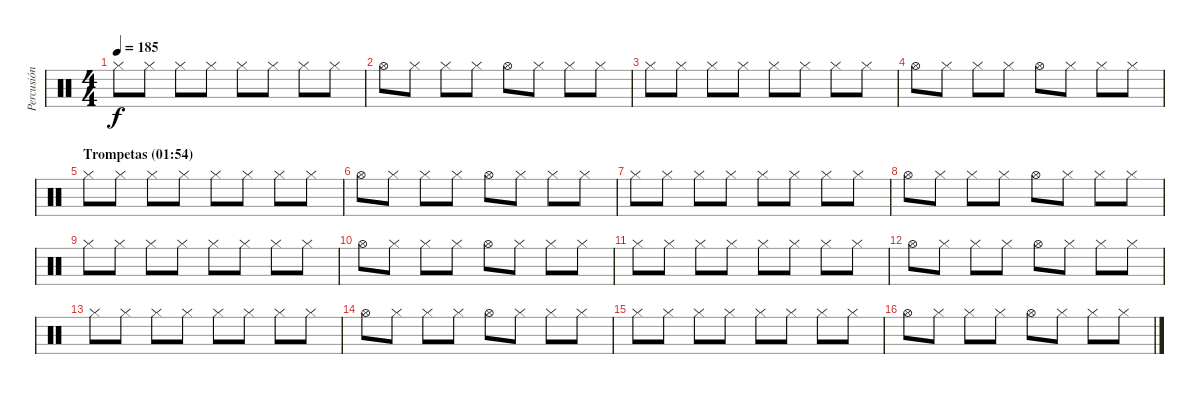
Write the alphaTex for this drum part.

\track ("Percusión" "Percusión") {instrument percussion}
\staff {score}
\articulation defaults
\ts (4 4)
\tempo 185
\clef neutral
\ks c "Hi-Hat (closed)".8{dy f} "Hi-Hat (closed)".8 "Hi-Hat (closed)".8 "Hi-Hat (closed)".8 "Hi-Hat (closed)".8 "Hi-Hat (closed)".8 "Hi-Hat (closed)".8 "Hi-Hat (closed)".8
|
"Hi-Hat (open)".8 "Hi-Hat (closed)".8 "Hi-Hat (closed)".8 "Hi-Hat (closed)".8 "Hi-Hat (open)".8 "Hi-Hat (closed)".8 "Hi-Hat (closed)".8 "Hi-Hat (closed)".8 |
"Hi-Hat (closed)".8 "Hi-Hat (closed)".8 "Hi-Hat (closed)".8 "Hi-Hat (closed)".8 "Hi-Hat (closed)".8 "Hi-Hat (closed)".8 "Hi-Hat (closed)".8 "Hi-Hat (closed)".8 |
"Hi-Hat (open)".8 "Hi-Hat (closed)".8 "Hi-Hat (closed)".8 "Hi-Hat (closed)".8 "Hi-Hat (open)".8 "Hi-Hat (closed)".8 "Hi-Hat (closed)".8 "Hi-Hat (closed)".8 |
\section ("" "Trompetas (01:54)")
"Hi-Hat (closed)".8 "Hi-Hat (closed)".8 "Hi-Hat (closed)".8 "Hi-Hat (closed)".8 "Hi-Hat (closed)".8 "Hi-Hat (closed)".8 "Hi-Hat (closed)".8 "Hi-Hat (closed)".8 |
"Hi-Hat (open)".8 "Hi-Hat (closed)".8 "Hi-Hat (closed)".8 "Hi-Hat (closed)".8 "Hi-Hat (open)".8 "Hi-Hat (closed)".8 "Hi-Hat (closed)".8 "Hi-Hat (closed)".8 |
"Hi-Hat (closed)".8 "Hi-Hat (closed)".8 "Hi-Hat (closed)".8 "Hi-Hat (closed)".8 "Hi-Hat (closed)".8 "Hi-Hat (closed)".8 "Hi-Hat (closed)".8 "Hi-Hat (closed)".8 |
"Hi-Hat (open)".8 "Hi-Hat (closed)".8 "Hi-Hat (closed)".8 "Hi-Hat (closed)".8 "Hi-Hat (open)".8 "Hi-Hat (closed)".8 "Hi-Hat (closed)".8 "Hi-Hat (closed)".8 |
"Hi-Hat (closed)".8 "Hi-Hat (closed)".8 "Hi-Hat (closed)".8 "Hi-Hat (closed)".8 "Hi-Hat (closed)".8 "Hi-Hat (closed)".8 "Hi-Hat (closed)".8 "Hi-Hat (closed)".8 |
"Hi-Hat (open)".8 "Hi-Hat (closed)".8 "Hi-Hat (closed)".8 "Hi-Hat (closed)".8 "Hi-Hat (open)".8 "Hi-Hat (closed)".8 "Hi-Hat (closed)".8 "Hi-Hat (closed)".8 |
"Hi-Hat (closed)".8 "Hi-Hat (closed)".8 "Hi-Hat (closed)".8 "Hi-Hat (closed)".8 "Hi-Hat (closed)".8 "Hi-Hat (closed)".8 "Hi-Hat (closed)".8 "Hi-Hat (closed)".8 |
"Hi-Hat (open)".8 "Hi-Hat (closed)".8 "Hi-Hat (closed)".8 "Hi-Hat (closed)".8 "Hi-Hat (open)".8 "Hi-Hat (closed)".8 "Hi-Hat (closed)".8 "Hi-Hat (closed)".8 |
"Hi-Hat (closed)".8 "Hi-Hat (closed)".8 "Hi-Hat (closed)".8 "Hi-Hat (closed)".8 "Hi-Hat (closed)".8 "Hi-Hat (closed)".8 "Hi-Hat (closed)".8 "Hi-Hat (closed)".8 |
"Hi-Hat (open)".8 "Hi-Hat (closed)".8 "Hi-Hat (closed)".8 "Hi-Hat (closed)".8 "Hi-Hat (open)".8 "Hi-Hat (closed)".8 "Hi-Hat (closed)".8 "Hi-Hat (closed)".8 |
"Hi-Hat (closed)".8 "Hi-Hat (closed)".8 "Hi-Hat (closed)".8 "Hi-Hat (closed)".8 "Hi-Hat (closed)".8 "Hi-Hat (closed)".8 "Hi-Hat (closed)".8 "Hi-Hat (closed)".8 |
"Hi-Hat (open)".8 "Hi-Hat (closed)".8 "Hi-Hat (closed)".8 "Hi-Hat (closed)".8 "Hi-Hat (open)".8 "Hi-Hat (closed)".8 "Hi-Hat (closed)".8 "Hi-Hat (closed)".8
